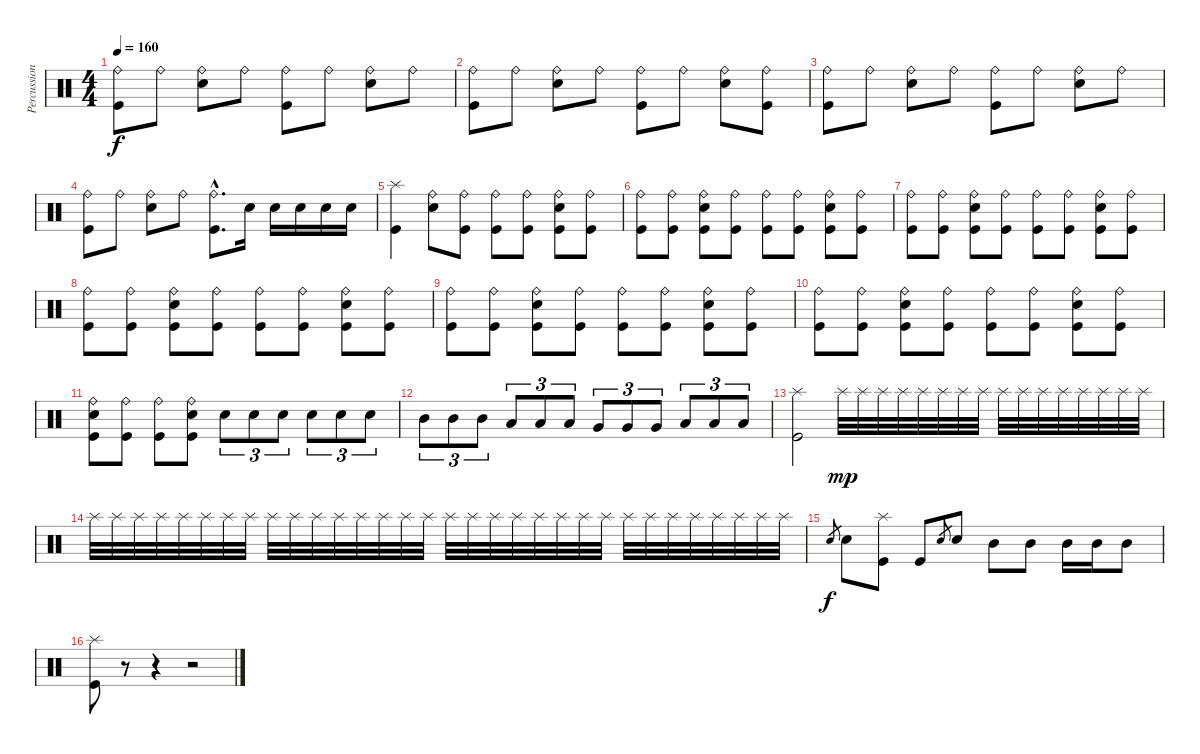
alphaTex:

\track ("Percussions" "Percussion") {instrument percussion}
\staff {score}
\articulation defaults
\ts (4 4)
\tempo 160
\clef neutral
\ks c
("Kick (hit)" "Ride (bell)").8{dy f} "Ride (bell)".8 ("Electric Snare (hit)" "Ride (bell)").8 "Ride (bell)".8 ("Kick (hit)" "Ride (bell)").8 "Ride (bell)".8 ("Electric Snare (hit)" "Ride (bell)").8 "Ride (bell)".8 |
("Kick (hit)" "Ride (bell)").8 "Ride (bell)".8 ("Electric Snare (hit)" "Ride (bell)").8 "Ride (bell)".8 ("Kick (hit)" "Ride (bell)").8 "Ride (bell)".8 ("Electric Snare (hit)" "Ride (bell)").8 ("Kick (hit)" "Ride (bell)").8 |
("Kick (hit)" "Ride (bell)").8 "Ride (bell)".8 ("Electric Snare (hit)" "Ride (bell)").8 "Ride (bell)".8 ("Kick (hit)" "Ride (bell)").8 "Ride (bell)".8 ("Electric Snare (hit)" "Ride (bell)").8 "Ride (bell)".8 |
("Kick (hit)" "Ride (bell)").8 "Ride (bell)".8 ("Electric Snare (hit)" "Ride (bell)").8 "Ride (bell)".8 ("Kick (hit)"{hac} "Ride (bell)"{hac}).8{d} "Electric Snare (hit)".16 "Electric Snare (hit)".16 "Electric Snare (hit)".16 "Electric Snare (hit)".16 "Electric Snare (hit)".16 |
("Kick (hit)" "Splash (hit)").4 ("Electric Snare (hit)" "Ride (bell)").8 ("Kick (hit)" "Ride (bell)").8 ("Kick (hit)" "Ride (bell)").8 ("Kick (hit)" "Ride (bell)").8 ("Kick (hit)" "Electric Snare (hit)" "Ride (bell)").8 ("Kick (hit)" "Ride (bell)").8 |
("Kick (hit)" "Ride (bell)").8 ("Kick (hit)" "Ride (bell)").8 ("Kick (hit)" "Electric Snare (hit)" "Ride (bell)").8 ("Kick (hit)" "Ride (bell)").8 ("Kick (hit)" "Ride (bell)").8 ("Kick (hit)" "Ride (bell)").8 ("Kick (hit)" "Electric Snare (hit)" "Ride (bell)").8 ("Kick (hit)" "Ride (bell)").8 |
("Kick (hit)" "Ride (bell)").8 ("Kick (hit)" "Ride (bell)").8 ("Kick (hit)" "Electric Snare (hit)" "Ride (bell)").8 ("Kick (hit)" "Ride (bell)").8 ("Kick (hit)" "Ride (bell)").8 ("Kick (hit)" "Ride (bell)").8 ("Kick (hit)" "Electric Snare (hit)" "Ride (bell)").8 ("Kick (hit)" "Ride (bell)").8 |
("Kick (hit)" "Ride (bell)").8 ("Kick (hit)" "Ride (bell)").8 ("Kick (hit)" "Electric Snare (hit)" "Ride (bell)").8 ("Kick (hit)" "Ride (bell)").8 ("Kick (hit)" "Ride (bell)").8 ("Kick (hit)" "Ride (bell)").8 ("Kick (hit)" "Electric Snare (hit)" "Ride (bell)").8 ("Kick (hit)" "Ride (bell)").8 |
("Kick (hit)" "Ride (bell)").8 ("Kick (hit)" "Ride (bell)").8 ("Kick (hit)" "Electric Snare (hit)" "Ride (bell)").8 ("Kick (hit)" "Ride (bell)").8 ("Kick (hit)" "Ride (bell)").8 ("Kick (hit)" "Ride (bell)").8 ("Kick (hit)" "Electric Snare (hit)" "Ride (bell)").8 ("Kick (hit)" "Ride (bell)").8 |
("Kick (hit)" "Ride (bell)").8 ("Kick (hit)" "Ride (bell)").8 ("Kick (hit)" "Electric Snare (hit)" "Ride (bell)").8 ("Kick (hit)" "Ride (bell)").8 ("Kick (hit)" "Ride (bell)").8 ("Kick (hit)" "Ride (bell)").8 ("Kick (hit)" "Electric Snare (hit)" "Ride (bell)").8 ("Kick (hit)" "Ride (bell)").8 |
("Kick (hit)" "Electric Snare (hit)" "Ride (bell)").8 ("Kick (hit)" "Ride (bell)").8 ("Kick (hit)" "Ride (bell)").8 ("Kick (hit)" "Electric Snare (hit)" "Ride (bell)").8 "Electric Snare (hit)".8{tu (3 2)} "Electric Snare (hit)".8{tu (3 2)} "Electric Snare (hit)".8{tu (3 2)} "Electric Snare (hit)".8{tu (3 2)} "Electric Snare (hit)".8{tu (3 2)} "Electric Snare (hit)".8{tu (3 2)} |
"Mid Tom (hit)".8{tu (3 2)} "Mid Tom (hit)".8{tu (3 2)} "Mid Tom (hit)".8{tu (3 2)} "Low Tom (hit)".8{tu (3 2)} "Low Tom (hit)".8{tu (3 2)} "Low Tom (hit)".8{tu (3 2)} "Very Low Tom (hit)".8{tu (3 2)} "Very Low Tom (hit)".8{tu (3 2)} "Very Low Tom (hit)".8{tu (3 2)} "Low Floor Tom (hit)".8{tu (3 2)} "Low Floor Tom (hit)".8{tu (3 2)} "Low Floor Tom (hit)".8{tu (3 2)} |
("Kick (hit)" "Splash (hit)").2 "Splash (hit)".32{dy mp} "Splash (hit)".32 "Splash (hit)".32 "Splash (hit)".32 "Splash (hit)".32 "Splash (hit)".32 "Splash (hit)".32 "Splash (hit)".32 "Splash (hit)".32 "Splash (hit)".32 "Splash (hit)".32 "Splash (hit)".32 "Splash (hit)".32 "Splash (hit)".32 "Splash (hit)".32 "Splash (hit)".32 |
"Splash (hit)".32 "Splash (hit)".32 "Splash (hit)".32 "Splash (hit)".32 "Splash (hit)".32 "Splash (hit)".32 "Splash (hit)".32 "Splash (hit)".32 "Splash (hit)".32 "Splash (hit)".32 "Splash (hit)".32 "Splash (hit)".32 "Splash (hit)".32 "Splash (hit)".32 "Splash (hit)".32 "Splash (hit)".32 "Splash (hit)".32 "Splash (hit)".32 "Splash (hit)".32 "Splash (hit)".32 "Splash (hit)".32 "Splash (hit)".32 "Splash (hit)".32 "Splash (hit)".32 "Splash (hit)".32 "Splash (hit)".32 "Splash (hit)".32 "Splash (hit)".32 "Splash (hit)".32 "Splash (hit)".32 "Splash (hit)".32 "Splash (hit)".32 |
"Electric Snare (hit)".8{gr dy f} "Electric Snare (hit)".8 ("Kick (hit)" "Splash (hit)").8 "Kick (hit)".8 "Electric Snare (hit)".8{gr} "Electric Snare (hit)".8 "Mid Tom (hit)".8 "Mid Tom (hit)".8 "Mid Tom (hit)".16 "Mid Tom (hit)".16 "Mid Tom (hit)".8 |
("Kick (hit)" "Splash (hit)").8 r.8 r.4 r.2
